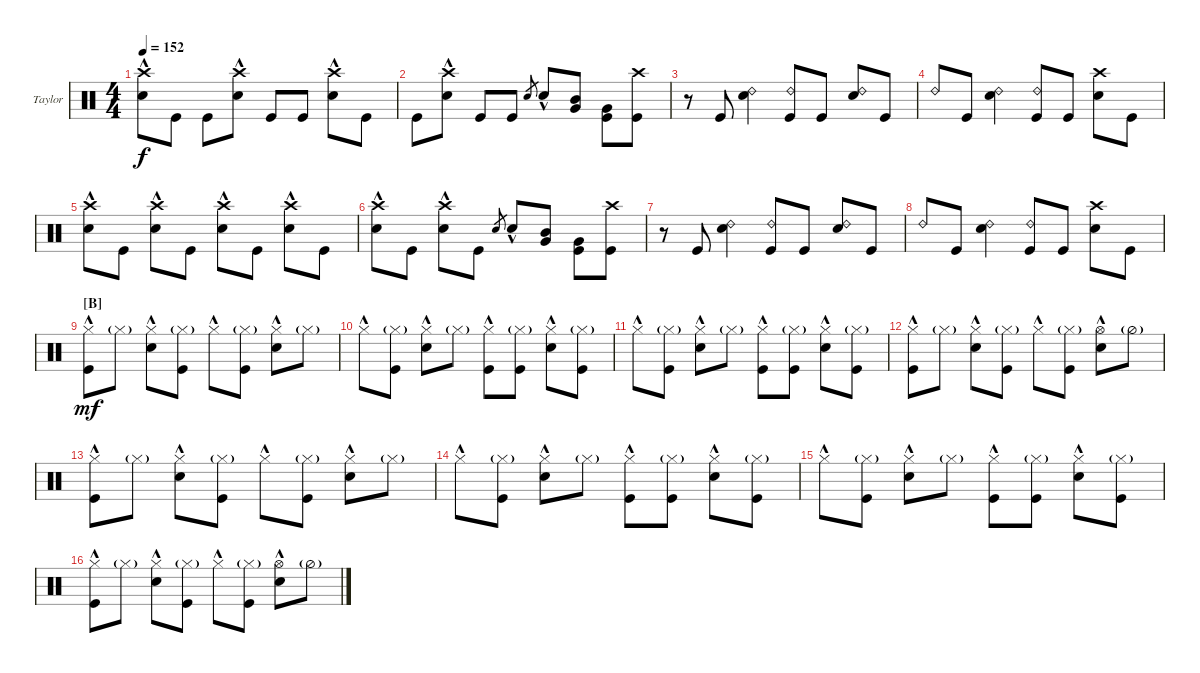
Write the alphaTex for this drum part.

\defaultSystemsLayout 4
\bracketExtendMode nobrackets
\firstSystemTrackNameOrientation horizontal
\otherSystemsTrackNameOrientation horizontal
\track ("Drums (Taylor Hawkins)" "Taylor") {instrument percussion}
\staff {score}
\articulation defaults
\ts (4 4)
\tempo 152
\clef neutral
\ks c
("Snare (hit) 2"{hac} "Crash high (hit)").8{dy f} "Kick (hit)".8 "Kick (hit)".8 ("Crash high (hit)" "Snare (hit) 2"{hac}).8 "Kick (hit)".8 "Kick (hit)".8 ("Snare (hit) 2"{hac} "Crash high (hit)").8 "Kick (hit)".8 |
"Kick (hit)".8 ("Crash high (hit)" "Snare (hit) 2"{hac}).8 "Kick (hit)".8 "Kick (hit)".8 "Snare (hit) 2".8{gr} "Snare (hit) 2"{hac}.8 ("Mid Tom (hit)" "Very Low Tom (hit)").8 ("Very Low Tom (hit)" "Kick (hit)").8 ("Crash high (hit)" "Kick (hit)").8 |
r.8 "Kick (hit)".8 ("Snare (hit) 2" "Ride (bell) 2").4 ("Ride (bell) 2" "Kick (hit)").8 "Kick (hit)".8 ("Snare (hit) 2" "Ride (bell) 2").8 "Kick (hit)".8 |
"Ride (bell) 2".8 "Kick (hit)".8 ("Snare (hit) 2" "Ride (bell) 2").4 ("Kick (hit)" "Ride (bell) 2").8 "Kick (hit)".8 ("Snare (hit) 2" "Crash high (hit)").8 "Kick (hit)".8 |
("Snare (hit) 2"{hac} "Crash high (hit)").8 "Kick (hit)".8 ("Snare (hit) 2"{hac} "Crash high (hit)").8 "Kick (hit)".8 ("Snare (hit) 2"{hac} "Crash high (hit)").8 "Kick (hit)".8 ("Snare (hit) 2"{hac} "Crash high (hit)").8 "Kick (hit)".8 |
("Snare (hit) 2"{hac} "Crash high (hit)").8 "Kick (hit)".8 ("Snare (hit) 2"{hac} "Crash high (hit)").8 "Kick (hit)".8 "Snare (hit) 2".8{gr} "Snare (hit) 2"{hac}.8 ("Mid Tom (hit)" "Very Low Tom (hit)").8 ("Very Low Tom (hit)" "Kick (hit)").8 ("Crash high (hit)" "Kick (hit)").8 |
r.8 "Kick (hit)".8 ("Snare (hit) 2" "Ride (bell) 2").4 ("Ride (bell) 2" "Kick (hit)").8 "Kick (hit)".8 ("Snare (hit) 2" "Ride (bell) 2").8 "Kick (hit)".8 |
"Ride (bell) 2".8 "Kick (hit)".8 ("Snare (hit) 2" "Ride (bell) 2").4 ("Kick (hit)" "Ride (bell) 2").8 "Kick (hit)".8 ("Snare (hit) 2" "Crash high (hit)").8 "Kick (hit)".8 |
\section ("B" "")
("Kick (hit)" "Hi-Hat (closed)"{hac}).8{dy mf} "Hi-Hat (closed)"{g}.8 ("Snare (hit) 2" "Hi-Hat (closed)"{hac}).8 ("Kick (hit)" "Hi-Hat (closed)"{g}).8 "Hi-Hat (closed)"{hac}.8 ("Hi-Hat (closed)"{g} "Kick (hit)").8 ("Hi-Hat (closed)"{hac} "Snare (hit) 2").8 "Hi-Hat (closed)"{g}.8 |
"Hi-Hat (closed)"{hac}.8 ("Kick (hit)" "Hi-Hat (closed)"{g}).8 ("Snare (hit) 2" "Hi-Hat (closed)"{hac}).8 "Hi-Hat (closed)"{g}.8 ("Kick (hit)" "Hi-Hat (closed)"{hac}).8 ("Kick (hit)" "Hi-Hat (closed)"{g}).8 ("Snare (hit) 2" "Hi-Hat (closed)"{hac}).8 ("Hi-Hat (closed)"{g} "Kick (hit)").8 |
"Hi-Hat (closed)"{hac}.8 ("Hi-Hat (closed)"{g} "Kick (hit)").8 ("Hi-Hat (closed)"{hac} "Snare (hit) 2").8 "Hi-Hat (closed)"{g}.8 ("Hi-Hat (closed)"{hac} "Kick (hit)").8 ("Hi-Hat (closed)"{g} "Kick (hit)").8 ("Hi-Hat (closed)"{hac} "Snare (hit) 2").8 ("Hi-Hat (closed)"{g} "Kick (hit)").8 |
("Hi-Hat (closed)"{hac} "Kick (hit)").8 "Hi-Hat (closed)"{g}.8 ("Hi-Hat (closed)"{hac} "Snare (hit) 2").8 ("Hi-Hat (closed)"{g} "Kick (hit)").8 "Hi-Hat (closed)"{hac}.8 ("Hi-Hat (closed)"{g} "Kick (hit)").8 ("Hi-Hat (open)"{hac} "Snare (hit) 2").8 "Hi-Hat (half)"{g}.8 |
("Kick (hit)" "Hi-Hat (closed)"{hac}).8 "Hi-Hat (closed)"{g}.8 ("Snare (hit) 2" "Hi-Hat (closed)"{hac}).8 ("Kick (hit)" "Hi-Hat (closed)"{g}).8 "Hi-Hat (closed)"{hac}.8 ("Hi-Hat (closed)"{g} "Kick (hit)").8 ("Hi-Hat (closed)"{hac} "Snare (hit) 2").8 "Hi-Hat (closed)"{g}.8 |
"Hi-Hat (closed)"{hac}.8 ("Kick (hit)" "Hi-Hat (closed)"{g}).8 ("Snare (hit) 2" "Hi-Hat (closed)"{hac}).8 "Hi-Hat (closed)"{g}.8 ("Kick (hit)" "Hi-Hat (closed)"{hac}).8 ("Kick (hit)" "Hi-Hat (closed)"{g}).8 ("Snare (hit) 2" "Hi-Hat (closed)"{hac}).8 ("Hi-Hat (closed)"{g} "Kick (hit)").8 |
"Hi-Hat (closed)"{hac}.8 ("Hi-Hat (closed)"{g} "Kick (hit)").8 ("Hi-Hat (closed)"{hac} "Snare (hit) 2").8 "Hi-Hat (closed)"{g}.8 ("Hi-Hat (closed)"{hac} "Kick (hit)").8 ("Hi-Hat (closed)"{g} "Kick (hit)").8 ("Hi-Hat (closed)"{hac} "Snare (hit) 2").8 ("Hi-Hat (closed)"{g} "Kick (hit)").8 |
("Hi-Hat (closed)"{hac} "Kick (hit)").8 "Hi-Hat (closed)"{g}.8 ("Hi-Hat (closed)"{hac} "Snare (hit) 2").8 ("Hi-Hat (closed)"{g} "Kick (hit)").8 "Hi-Hat (closed)"{hac}.8 ("Hi-Hat (closed)"{g} "Kick (hit)").8 ("Hi-Hat (open)"{hac} "Snare (hit) 2").8 "Hi-Hat (half)"{g}.8
